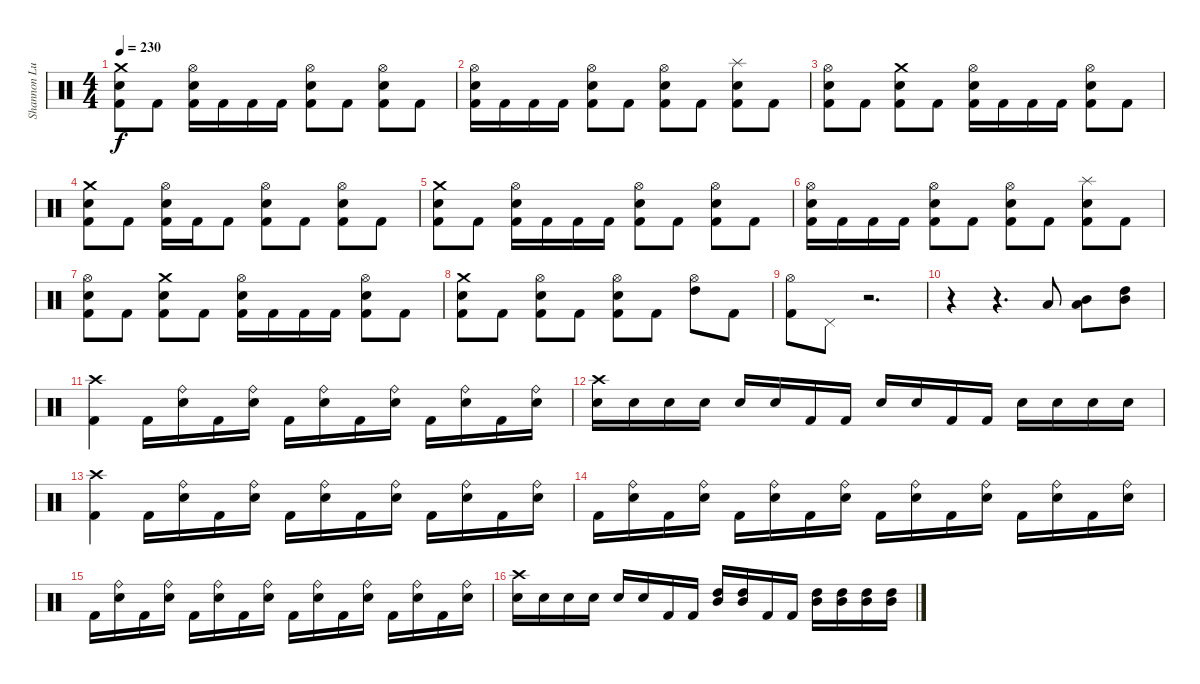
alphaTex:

\track ("Shannon Lucas" "Shannon Lu") {instrument percussion}
\staff {score}
\articulation defaults
\ts (4 4)
\tempo 230
\clef neutral
\ks c
("Crash medium (hit)" "Electric Snare (hit)" "Kick (hit) 2").8{dy f} "Kick (hit) 2".8 ("Hi-Hat (open)" "Electric Snare (hit)" "Kick (hit) 2").16 "Kick (hit) 2".16 "Kick (hit) 2".16 "Kick (hit) 2".16 ("Hi-Hat (open)" "Electric Snare (hit)" "Kick (hit) 2").8 "Kick (hit) 2".8 ("Hi-Hat (open)" "Electric Snare (hit)" "Kick (hit) 2").8 "Kick (hit) 2".8 |
("Hi-Hat (open)" "Electric Snare (hit)" "Kick (hit) 2").16 "Kick (hit) 2".16 "Kick (hit) 2".16 "Kick (hit) 2".16 ("Hi-Hat (open)" "Electric Snare (hit)" "Kick (hit) 2").8 "Kick (hit) 2".8 ("Hi-Hat (open)" "Electric Snare (hit)" "Kick (hit) 2").8 "Kick (hit) 2".8 ("Splash (hit)" "Electric Snare (hit)" "Kick (hit) 2").8 "Kick (hit) 2".8 |
("Hi-Hat (open)" "Electric Snare (hit)" "Kick (hit) 2").8 "Kick (hit) 2".8 ("Crash medium (hit)" "Electric Snare (hit)" "Kick (hit) 2").8 "Kick (hit) 2".8 ("Hi-Hat (open)" "Electric Snare (hit)" "Kick (hit) 2").16 "Kick (hit) 2".16 "Kick (hit) 2".16 "Kick (hit) 2".16 ("Hi-Hat (open)" "Electric Snare (hit)" "Kick (hit) 2").8 "Kick (hit) 2".8 |
("Crash medium (hit)" "Electric Snare (hit)" "Kick (hit) 2").8 "Kick (hit) 2".8 ("Hi-Hat (open)" "Electric Snare (hit)" "Kick (hit) 2").16 "Kick (hit) 2".16 "Kick (hit) 2".8 ("Hi-Hat (open)" "Electric Snare (hit)" "Kick (hit) 2").8 "Kick (hit) 2".8 ("Hi-Hat (open)" "Electric Snare (hit)" "Kick (hit) 2").8 "Kick (hit) 2".8 |
("Crash medium (hit)" "Electric Snare (hit)" "Kick (hit) 2").8 "Kick (hit) 2".8 ("Hi-Hat (open)" "Electric Snare (hit)" "Kick (hit) 2").16 "Kick (hit) 2".16 "Kick (hit) 2".16 "Kick (hit) 2".16 ("Hi-Hat (open)" "Electric Snare (hit)" "Kick (hit) 2").8 "Kick (hit) 2".8 ("Hi-Hat (open)" "Electric Snare (hit)" "Kick (hit) 2").8 "Kick (hit) 2".8 |
("Hi-Hat (open)" "Electric Snare (hit)" "Kick (hit) 2").16 "Kick (hit) 2".16 "Kick (hit) 2".16 "Kick (hit) 2".16 ("Hi-Hat (open)" "Electric Snare (hit)" "Kick (hit) 2").8 "Kick (hit) 2".8 ("Hi-Hat (open)" "Electric Snare (hit)" "Kick (hit) 2").8 "Kick (hit) 2".8 ("Splash (hit)" "Electric Snare (hit)" "Kick (hit) 2").8 "Kick (hit) 2".8 |
("Hi-Hat (open)" "Electric Snare (hit)" "Kick (hit) 2").8 "Kick (hit) 2".8 ("Crash medium (hit)" "Electric Snare (hit)" "Kick (hit) 2").8 "Kick (hit) 2".8 ("Hi-Hat (open)" "Electric Snare (hit)" "Kick (hit) 2").16 "Kick (hit) 2".16 "Kick (hit) 2".16 "Kick (hit) 2".16 ("Hi-Hat (open)" "Electric Snare (hit)" "Kick (hit) 2").8 "Kick (hit) 2".8 |
("Crash medium (hit)" "Electric Snare (hit)" "Kick (hit) 2").8 "Kick (hit) 2".8 ("Hi-Hat (open)" "Electric Snare (hit)" "Kick (hit) 2").8 "Kick (hit) 2".8 ("Hi-Hat (open)" "Electric Snare (hit)" "Kick (hit) 2").8 "Kick (hit) 2".8 ("Hi-Hat (open)" "High Tom (hit)").8 "Kick (hit) 2".8 |
("Hi-Hat (open)" "Kick (hit) 2").8 "Pedal Hi-Hat (hit)".8 r.2{d} |
r.4 r.4{d} "Low Tom (hit)".8 ("Mid Tom (hit)" "Low Tom (hit)").8 ("High Tom (hit)" "Mid Tom (hit)").8 |
("Crash high (hit)" "Kick (hit) 2").4 "Kick (hit) 2".16 ("Ride (bell)" "Electric Snare (hit)").16 "Kick (hit) 2".16 ("Ride (bell)" "Electric Snare (hit)").16 "Kick (hit) 2".16 ("Ride (bell)" "Electric Snare (hit)").16 "Kick (hit) 2".16 ("Ride (bell)" "Electric Snare (hit)").16 "Kick (hit) 2".16 ("Ride (bell)" "Electric Snare (hit)").16 "Kick (hit) 2".16 ("Ride (bell)" "Electric Snare (hit)").16 |
("Crash high (hit)" "Electric Snare (hit)").16 "Electric Snare (hit)".16 "Electric Snare (hit)".16 "Electric Snare (hit)".16 "Electric Snare (hit)".16 "Electric Snare (hit)".16 "Kick (hit) 2".16 "Kick (hit) 2".16 "Electric Snare (hit)".16 "Electric Snare (hit)".16 "Kick (hit) 2".16 "Kick (hit) 2".16 "Electric Snare (hit)".16 "Electric Snare (hit)".16 "Electric Snare (hit)".16 "Electric Snare (hit)".16 |
("Crash high (hit)" "Kick (hit) 2").4 "Kick (hit) 2".16 ("Ride (bell)" "Electric Snare (hit)").16 "Kick (hit) 2".16 ("Ride (bell)" "Electric Snare (hit)").16 "Kick (hit) 2".16 ("Ride (bell)" "Electric Snare (hit)").16 "Kick (hit) 2".16 ("Ride (bell)" "Electric Snare (hit)").16 "Kick (hit) 2".16 ("Ride (bell)" "Electric Snare (hit)").16 "Kick (hit) 2".16 ("Ride (bell)" "Electric Snare (hit)").16 |
"Kick (hit) 2".16 ("Ride (bell)" "Electric Snare (hit)").16 "Kick (hit) 2".16 ("Ride (bell)" "Electric Snare (hit)").16 "Kick (hit) 2".16 ("Ride (bell)" "Electric Snare (hit)").16 "Kick (hit) 2".16 ("Ride (bell)" "Electric Snare (hit)").16 "Kick (hit) 2".16 ("Ride (bell)" "Electric Snare (hit)").16 "Kick (hit) 2".16 ("Ride (bell)" "Electric Snare (hit)").16 "Kick (hit) 2".16 ("Ride (bell)" "Electric Snare (hit)").16 "Kick (hit) 2".16 ("Ride (bell)" "Electric Snare (hit)").16 |
"Kick (hit) 2".16 ("Ride (bell)" "Electric Snare (hit)").16 "Kick (hit) 2".16 ("Ride (bell)" "Electric Snare (hit)").16 "Kick (hit) 2".16 ("Ride (bell)" "Electric Snare (hit)").16 "Kick (hit) 2".16 ("Ride (bell)" "Electric Snare (hit)").16 "Kick (hit) 2".16 ("Ride (bell)" "Electric Snare (hit)").16 "Kick (hit) 2".16 ("Ride (bell)" "Electric Snare (hit)").16 "Kick (hit) 2".16 ("Ride (bell)" "Electric Snare (hit)").16 "Kick (hit) 2".16 ("Ride (bell)" "Electric Snare (hit)").16 |
("Crash high (hit)" "Electric Snare (hit)").16 "Electric Snare (hit)".16 "Electric Snare (hit)".16 "Electric Snare (hit)".16 "Electric Snare (hit)".16 "Electric Snare (hit)".16 "Kick (hit) 2".16 "Kick (hit) 2".16 ("High Tom (hit)" "Mid Tom (hit)").16 ("High Tom (hit)" "Mid Tom (hit)").16 "Kick (hit) 2".16 "Kick (hit) 2".16 ("High Tom (hit)" "Mid Tom (hit)").16 ("High Tom (hit)" "Mid Tom (hit)").16 ("High Tom (hit)" "Mid Tom (hit)").16 ("High Tom (hit)" "Mid Tom (hit)").16
